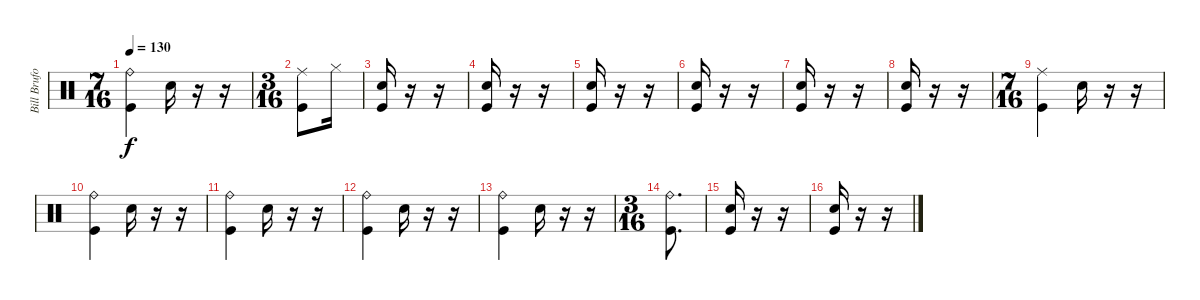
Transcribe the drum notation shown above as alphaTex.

\track ("Bill Bruford" "Bill Brufo") {instrument percussion}
\staff {score}
\articulation defaults
\ts (7 16)
\tempo 130
\clef neutral
\ks c
("Ride (bell)" "Kick (hit)").4{dy f} "Snare (hit) 2".16 r.16 r.16 |
\ts (3 16)
("Ride (middle)" "Kick (hit)").8 "Hi-Hat (closed)".16 |
("Snare (hit) 2" "Kick (hit)").16 r.16 r.16 |
("Snare (hit) 2" "Kick (hit)").16 r.16 r.16 |
("Snare (hit) 2" "Kick (hit)").16 r.16 r.16 |
("Snare (hit) 2" "Kick (hit)").16 r.16 r.16 |
("Snare (hit) 2" "Kick (hit)").16 r.16 r.16 |
("Snare (hit) 2" "Kick (hit)").16 r.16 r.16 |
\ts (7 16)
("Ride (middle)" "Kick (hit)").4 "Snare (hit) 2".16 r.16 r.16 |
("Ride (bell)" "Kick (hit)").4 "Snare (hit) 2".16 r.16 r.16 |
("Ride (bell)" "Kick (hit)").4 "Snare (hit) 2".16 r.16 r.16 |
("Ride (bell)" "Kick (hit)").4 "Snare (hit) 2".16 r.16 r.16 |
("Ride (bell)" "Kick (hit)").4 "Snare (hit) 2".16 r.16 r.16 |
\ts (3 16)
("Ride (bell)" "Kick (hit)").8{d} |
("Snare (hit) 2" "Kick (hit)").16 r.16 r.16 |
("Snare (hit) 2" "Kick (hit)").16 r.16 r.16
